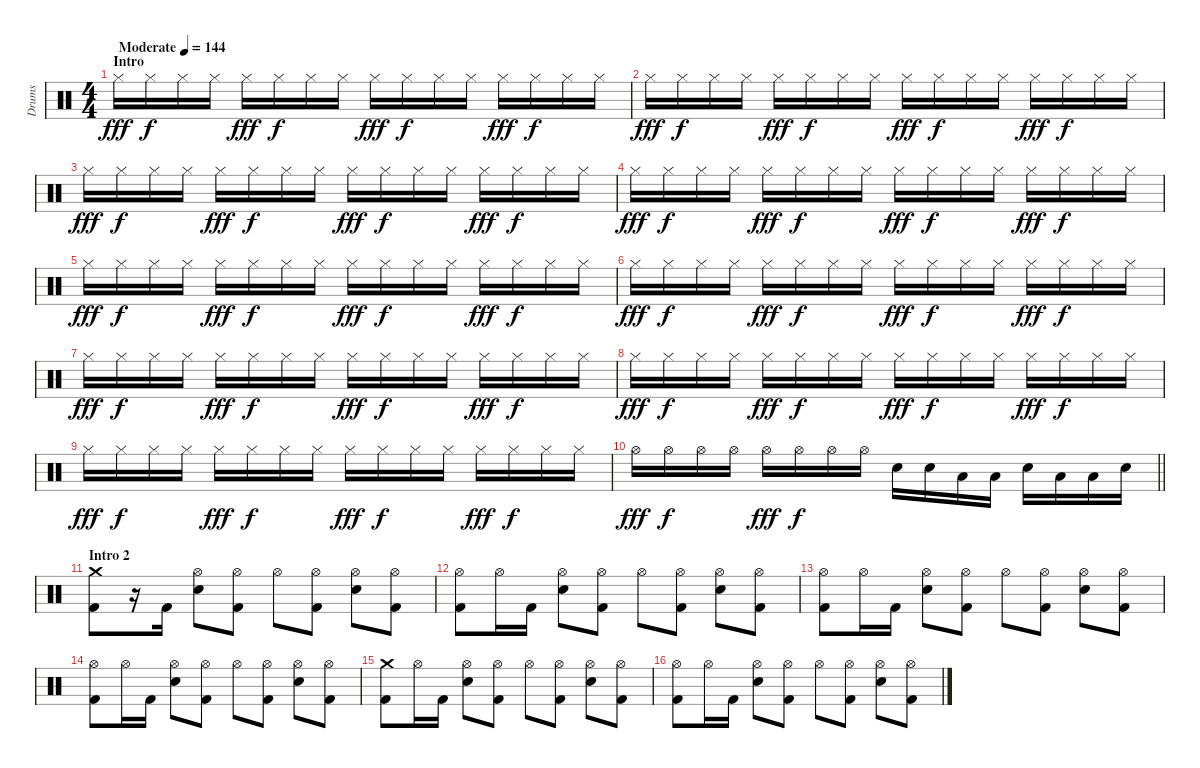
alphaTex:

\track ("Drums" "Drums") {instrument percussion}
\staff {score}
\articulation defaults
\ts (4 4)
\section ("" "Intro")
\tempo (144 "Moderate")
\clef neutral
\ks c "Hi-Hat (closed)".16{dy fff} "Hi-Hat (closed)".16{dy f} "Hi-Hat (closed)".16 "Hi-Hat (closed)".16 "Hi-Hat (closed)".16{dy fff} "Hi-Hat (closed)".16{dy f} "Hi-Hat (closed)".16 "Hi-Hat (closed)".16 "Hi-Hat (closed)".16{dy fff} "Hi-Hat (closed)".16{dy f} "Hi-Hat (closed)".16 "Hi-Hat (closed)".16 "Hi-Hat (closed)".16{dy fff} "Hi-Hat (closed)".16{dy f} "Hi-Hat (closed)".16 "Hi-Hat (closed)".16
|
"Hi-Hat (closed)".16{dy fff} "Hi-Hat (closed)".16{dy f} "Hi-Hat (closed)".16 "Hi-Hat (closed)".16 "Hi-Hat (closed)".16{dy fff} "Hi-Hat (closed)".16{dy f} "Hi-Hat (closed)".16 "Hi-Hat (closed)".16 "Hi-Hat (closed)".16{dy fff} "Hi-Hat (closed)".16{dy f} "Hi-Hat (closed)".16 "Hi-Hat (closed)".16 "Hi-Hat (closed)".16{dy fff} "Hi-Hat (closed)".16{dy f} "Hi-Hat (closed)".16 "Hi-Hat (closed)".16 |
"Hi-Hat (closed)".16{dy fff} "Hi-Hat (closed)".16{dy f} "Hi-Hat (closed)".16 "Hi-Hat (closed)".16 "Hi-Hat (closed)".16{dy fff} "Hi-Hat (closed)".16{dy f} "Hi-Hat (closed)".16 "Hi-Hat (closed)".16 "Hi-Hat (closed)".16{dy fff} "Hi-Hat (closed)".16{dy f} "Hi-Hat (closed)".16 "Hi-Hat (closed)".16 "Hi-Hat (closed)".16{dy fff} "Hi-Hat (closed)".16{dy f} "Hi-Hat (closed)".16 "Hi-Hat (closed)".16 |
"Hi-Hat (closed)".16{dy fff} "Hi-Hat (closed)".16{dy f} "Hi-Hat (closed)".16 "Hi-Hat (closed)".16 "Hi-Hat (closed)".16{dy fff} "Hi-Hat (closed)".16{dy f} "Hi-Hat (closed)".16 "Hi-Hat (closed)".16 "Hi-Hat (closed)".16{dy fff} "Hi-Hat (closed)".16{dy f} "Hi-Hat (closed)".16 "Hi-Hat (closed)".16 "Hi-Hat (closed)".16{dy fff} "Hi-Hat (closed)".16{dy f} "Hi-Hat (closed)".16 "Hi-Hat (closed)".16 |
"Hi-Hat (closed)".16{dy fff} "Hi-Hat (closed)".16{dy f} "Hi-Hat (closed)".16 "Hi-Hat (closed)".16 "Hi-Hat (closed)".16{dy fff} "Hi-Hat (closed)".16{dy f} "Hi-Hat (closed)".16 "Hi-Hat (closed)".16 "Hi-Hat (closed)".16{dy fff} "Hi-Hat (closed)".16{dy f} "Hi-Hat (closed)".16 "Hi-Hat (closed)".16 "Hi-Hat (closed)".16{dy fff} "Hi-Hat (closed)".16{dy f} "Hi-Hat (closed)".16 "Hi-Hat (closed)".16 |
"Hi-Hat (closed)".16{dy fff} "Hi-Hat (closed)".16{dy f} "Hi-Hat (closed)".16 "Hi-Hat (closed)".16 "Hi-Hat (closed)".16{dy fff} "Hi-Hat (closed)".16{dy f} "Hi-Hat (closed)".16 "Hi-Hat (closed)".16 "Hi-Hat (closed)".16{dy fff} "Hi-Hat (closed)".16{dy f} "Hi-Hat (closed)".16 "Hi-Hat (closed)".16 "Hi-Hat (closed)".16{dy fff} "Hi-Hat (closed)".16{dy f} "Hi-Hat (closed)".16 "Hi-Hat (closed)".16 |
"Hi-Hat (closed)".16{dy fff} "Hi-Hat (closed)".16{dy f} "Hi-Hat (closed)".16 "Hi-Hat (closed)".16 "Hi-Hat (closed)".16{dy fff} "Hi-Hat (closed)".16{dy f} "Hi-Hat (closed)".16 "Hi-Hat (closed)".16 "Hi-Hat (closed)".16{dy fff} "Hi-Hat (closed)".16{dy f} "Hi-Hat (closed)".16 "Hi-Hat (closed)".16 "Hi-Hat (closed)".16{dy fff} "Hi-Hat (closed)".16{dy f} "Hi-Hat (closed)".16 "Hi-Hat (closed)".16 |
"Hi-Hat (closed)".16{dy fff} "Hi-Hat (closed)".16{dy f} "Hi-Hat (closed)".16 "Hi-Hat (closed)".16 "Hi-Hat (closed)".16{dy fff} "Hi-Hat (closed)".16{dy f} "Hi-Hat (closed)".16 "Hi-Hat (closed)".16 "Hi-Hat (closed)".16{dy fff} "Hi-Hat (closed)".16{dy f} "Hi-Hat (closed)".16 "Hi-Hat (closed)".16 "Hi-Hat (closed)".16{dy fff} "Hi-Hat (closed)".16{dy f} "Hi-Hat (closed)".16 "Hi-Hat (closed)".16 |
"Hi-Hat (closed)".16{dy fff} "Hi-Hat (closed)".16{dy f} "Hi-Hat (closed)".16 "Hi-Hat (closed)".16 "Hi-Hat (closed)".16{dy fff} "Hi-Hat (closed)".16{dy f} "Hi-Hat (closed)".16 "Hi-Hat (closed)".16 "Hi-Hat (closed)".16{dy fff} "Hi-Hat (closed)".16{dy f} "Hi-Hat (closed)".16 "Hi-Hat (closed)".16 "Hi-Hat (closed)".16{dy fff} "Hi-Hat (closed)".16{dy f} "Hi-Hat (closed)".16 "Hi-Hat (closed)".16 |
\barLineRight lightlight "Hi-Hat (open)".16{dy fff} "Hi-Hat (open)".16{dy f} "Hi-Hat (open)".16 "Hi-Hat (open)".16 "Hi-Hat (open)".16{dy fff} "Hi-Hat (open)".16{dy f} "Hi-Hat (open)".16 "Hi-Hat (open)".16 "Electric Snare (hit)".16 "Electric Snare (hit)".16 "Low Tom (hit)".16 "Low Tom (hit)".16 "Electric Snare (hit)".16 "Low Tom (hit)".16 "Low Tom (hit)".16 "Electric Snare (hit)".16
|
\section ("" "Intro 2")
("Crash medium (hit)" "Kick (hit) 2").8 r.16 "Kick (hit) 2".16 ("Hi-Hat (open)" "Electric Snare (hit)").8 ("Hi-Hat (open)" "Kick (hit) 2").8 "Hi-Hat (open)".8 ("Hi-Hat (open)" "Kick (hit) 2").8 ("Hi-Hat (open)" "Electric Snare (hit)").8 ("Hi-Hat (open)" "Kick (hit) 2").8 |
("Hi-Hat (open)" "Kick (hit) 2").8 "Hi-Hat (open)".16 "Kick (hit) 2".16 ("Hi-Hat (open)" "Electric Snare (hit)").8 ("Hi-Hat (open)" "Kick (hit) 2").8 "Hi-Hat (open)".8 ("Hi-Hat (open)" "Kick (hit) 2").8 ("Hi-Hat (open)" "Electric Snare (hit)").8 ("Hi-Hat (open)" "Kick (hit) 2").8 |
("Hi-Hat (open)" "Kick (hit) 2").8 "Hi-Hat (open)".16 "Kick (hit) 2".16 ("Hi-Hat (open)" "Electric Snare (hit)").8 ("Hi-Hat (open)" "Kick (hit) 2").8 "Hi-Hat (open)".8 ("Hi-Hat (open)" "Kick (hit) 2").8 ("Hi-Hat (open)" "Electric Snare (hit)").8 ("Hi-Hat (open)" "Kick (hit) 2").8 |
("Hi-Hat (open)" "Kick (hit) 2").8 "Hi-Hat (open)".16 "Kick (hit) 2".16 ("Hi-Hat (open)" "Electric Snare (hit)").8 ("Hi-Hat (open)" "Kick (hit) 2").8 "Hi-Hat (open)".8 ("Hi-Hat (open)" "Kick (hit) 2").8 ("Hi-Hat (open)" "Electric Snare (hit)").8 ("Hi-Hat (open)" "Kick (hit) 2").8 |
("Crash medium (hit)" "Kick (hit) 2").8 "Hi-Hat (open)".16 "Kick (hit) 2".16 ("Hi-Hat (open)" "Electric Snare (hit)").8 ("Hi-Hat (open)" "Kick (hit) 2").8 "Hi-Hat (open)".8 ("Hi-Hat (open)" "Kick (hit) 2").8 ("Hi-Hat (open)" "Electric Snare (hit)").8 ("Hi-Hat (open)" "Kick (hit) 2").8 |
("Hi-Hat (open)" "Kick (hit) 2").8 "Hi-Hat (open)".16 "Kick (hit) 2".16 ("Hi-Hat (open)" "Electric Snare (hit)").8 ("Hi-Hat (open)" "Kick (hit) 2").8 "Hi-Hat (open)".8 ("Hi-Hat (open)" "Kick (hit) 2").8 ("Hi-Hat (open)" "Electric Snare (hit)").8 ("Hi-Hat (open)" "Kick (hit) 2").8
